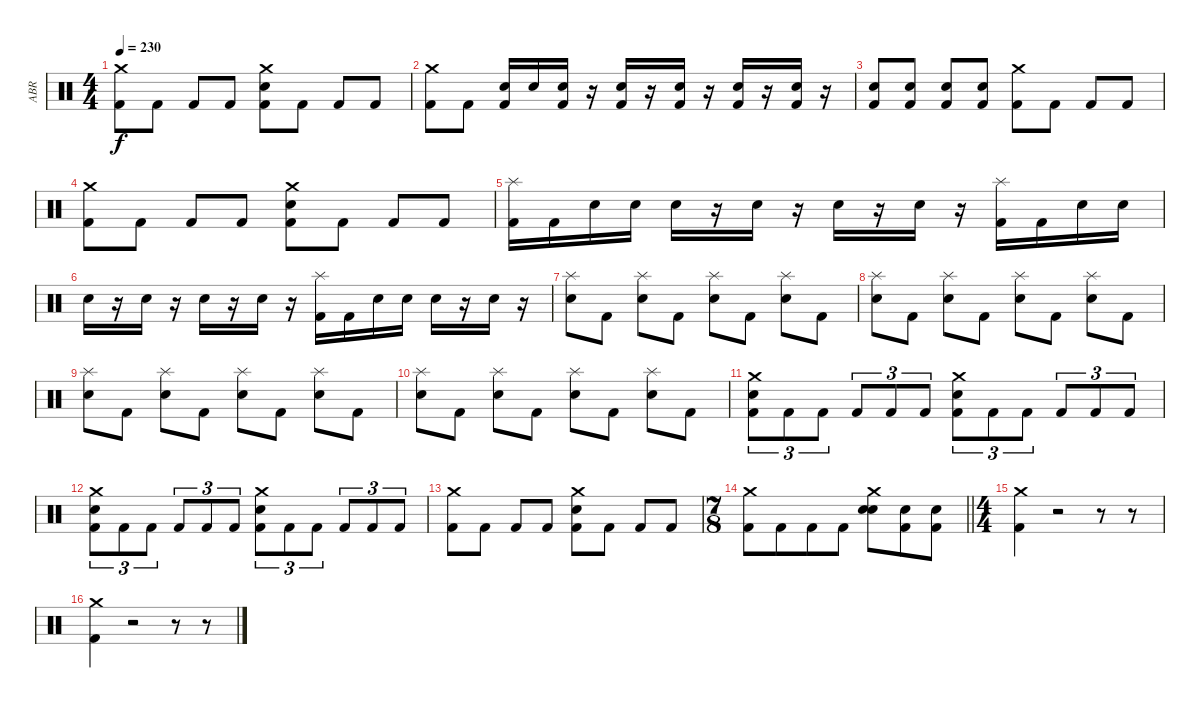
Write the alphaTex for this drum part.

\track ("ABR" "ABR") {instrument percussion}
\staff {score}
\articulation defaults
\ts (4 4)
\tempo 230
\clef neutral
\ks c
("Crash medium (hit)" "Kick (hit) 2").8{dy f} "Kick (hit) 2".8 "Kick (hit) 2".8 "Kick (hit) 2".8 ("Crash medium (hit)" "Snare (hit) 2" "Kick (hit) 2").8 "Kick (hit) 2".8 "Kick (hit) 2".8 "Kick (hit) 2".8 |
("Crash medium (hit)" "Kick (hit) 2").8 "Kick (hit) 2".8 ("Snare (hit) 2" "Kick (hit) 2").16 "Snare (hit) 2".16 ("Snare (hit) 2" "Kick (hit) 2").16 r.16 ("Snare (hit) 2" "Kick (hit) 2").16 r.16 ("Snare (hit) 2" "Kick (hit) 2").16 r.16 ("Snare (hit) 2" "Kick (hit) 2").16 r.16 ("Snare (hit) 2" "Kick (hit) 2").16 r.16 |
("Snare (hit) 2" "Kick (hit) 2").8 ("Snare (hit) 2" "Kick (hit) 2").8 ("Snare (hit) 2" "Kick (hit) 2").8 ("Snare (hit) 2" "Kick (hit) 2").8 ("Crash medium (hit)" "Kick (hit) 2").8 "Kick (hit) 2".8 "Kick (hit) 2".8 "Kick (hit) 2".8 |
("Crash medium (hit)" "Kick (hit) 2").8 "Kick (hit) 2".8 "Kick (hit) 2".8 "Kick (hit) 2".8 ("Crash medium (hit)" "Snare (hit) 2" "Kick (hit) 2").8 "Kick (hit) 2".8 "Kick (hit) 2".8 "Kick (hit) 2".8 |
("Splash (hit)" "Kick (hit) 2").16 "Kick (hit) 2".16 "Snare (hit) 2".16 "Snare (hit) 2".16 "Snare (hit) 2".16 r.16 "Snare (hit) 2".16 r.16 "Snare (hit) 2".16 r.16 "Snare (hit) 2".16 r.16 ("Splash (hit)" "Kick (hit) 2").16 "Kick (hit) 2".16 "Snare (hit) 2".16 "Snare (hit) 2".16 |
"Snare (hit) 2".16 r.16 "Snare (hit) 2".16 r.16 "Snare (hit) 2".16 r.16 "Snare (hit) 2".16 r.16 ("Splash (hit)" "Kick (hit) 2").16 "Kick (hit) 2".16 "Snare (hit) 2".16 "Snare (hit) 2".16 "Snare (hit) 2".16 r.16 "Snare (hit) 2".16 r.16 |
("Splash (hit)" "Snare (hit) 2").8 "Kick (hit) 2".8 ("Splash (hit)" "Snare (hit) 2").8 "Kick (hit) 2".8 ("Splash (hit)" "Snare (hit) 2").8 "Kick (hit) 2".8 ("Splash (hit)" "Snare (hit) 2").8 "Kick (hit) 2".8 |
("Splash (hit)" "Snare (hit) 2").8 "Kick (hit) 2".8 ("Splash (hit)" "Snare (hit) 2").8 "Kick (hit) 2".8 ("Splash (hit)" "Snare (hit) 2").8 "Kick (hit) 2".8 ("Splash (hit)" "Snare (hit) 2").8 "Kick (hit) 2".8 |
("Splash (hit)" "Snare (hit) 2").8 "Kick (hit) 2".8 ("Splash (hit)" "Snare (hit) 2").8 "Kick (hit) 2".8 ("Splash (hit)" "Snare (hit) 2").8 "Kick (hit) 2".8 ("Splash (hit)" "Snare (hit) 2").8 "Kick (hit) 2".8 |
("Splash (hit)" "Snare (hit) 2").8 "Kick (hit) 2".8 ("Splash (hit)" "Snare (hit) 2").8 "Kick (hit) 2".8 ("Splash (hit)" "Snare (hit) 2").8 "Kick (hit) 2".8 ("Splash (hit)" "Snare (hit) 2").8 "Kick (hit) 2".8 |
("Crash medium (hit)" "Snare (hit) 2" "Kick (hit) 2").8{tu (3 2)} "Kick (hit) 2".8{tu (3 2)} "Kick (hit) 2".8{tu (3 2)} "Kick (hit) 2".8{tu (3 2)} "Kick (hit) 2".8{tu (3 2)} "Kick (hit) 2".8{tu (3 2)} ("Crash medium (hit)" "Snare (hit) 2" "Kick (hit) 2").8{tu (3 2)} "Kick (hit) 2".8{tu (3 2)} "Kick (hit) 2".8{tu (3 2)} "Kick (hit) 2".8{tu (3 2)} "Kick (hit) 2".8{tu (3 2)} "Kick (hit) 2".8{tu (3 2)} |
("Crash medium (hit)" "Snare (hit) 2" "Kick (hit) 2").8{tu (3 2)} "Kick (hit) 2".8{tu (3 2)} "Kick (hit) 2".8{tu (3 2)} "Kick (hit) 2".8{tu (3 2)} "Kick (hit) 2".8{tu (3 2)} "Kick (hit) 2".8{tu (3 2)} ("Crash medium (hit)" "Snare (hit) 2" "Kick (hit) 2").8{tu (3 2)} "Kick (hit) 2".8{tu (3 2)} "Kick (hit) 2".8{tu (3 2)} "Kick (hit) 2".8{tu (3 2)} "Kick (hit) 2".8{tu (3 2)} "Kick (hit) 2".8{tu (3 2)} |
("Crash medium (hit)" "Kick (hit) 2").8 "Kick (hit) 2".8 "Kick (hit) 2".8 "Kick (hit) 2".8 ("Crash medium (hit)" "Snare (hit) 2" "Kick (hit) 2").8 "Kick (hit) 2".8 "Kick (hit) 2".8 "Kick (hit) 2".8 |
\ts (7 8)
\barLineRight lightlight
("Crash medium (hit)" "Kick (hit) 2").8 "Kick (hit) 2".8 "Kick (hit) 2".8 "Kick (hit) 2".8 ("Crash medium (hit)" "Snare (hit) 2" "Snare (hit) 2").8 ("Snare (hit) 2" "Kick (hit) 2").8 ("Snare (hit) 2" "Kick (hit) 2").8 |
\ts (4 4)
("Crash medium (hit)" "Kick (hit) 2").4 r.2{volume 0} r.8 r.8{volume 16} |
("Crash medium (hit)" "Kick (hit) 2").4 r.2{volume 0} r.8 r.8{volume 16}
